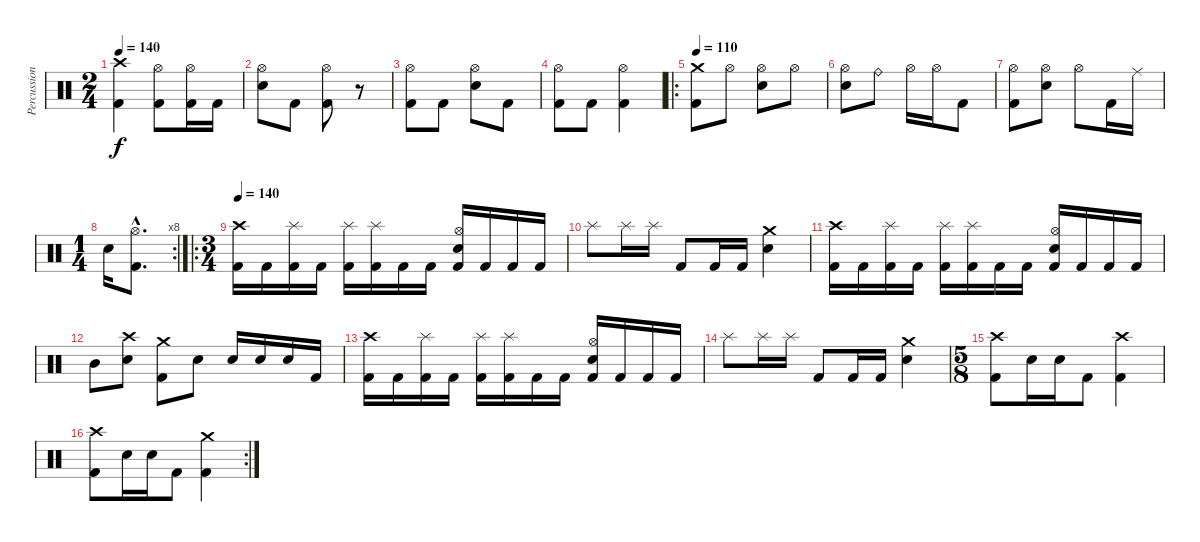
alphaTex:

\track ("Percussion" "Percussion") {instrument percussion}
\staff {score}
\articulation defaults
\ts (2 4)
\tempo 140
\clef neutral
\ks c
("Crash high (hit)" "Kick (hit) 2").4{dy f} ("Hi-Hat (open)" "Kick (hit) 2").8 ("Hi-Hat (open)" "Kick (hit) 2").16 "Kick (hit) 2".16 |
("Hi-Hat (open)" "Electric Snare (hit)").8 "Kick (hit) 2".8 ("Hi-Hat (open)" "Kick (hit) 2").8 r.8 |
("Hi-Hat (open)" "Kick (hit) 2").8 "Kick (hit) 2".8 ("Hi-Hat (open)" "Electric Snare (hit)").8 "Kick (hit) 2".8 |
("Hi-Hat (open)" "Kick (hit) 2").8 "Kick (hit) 2".8 ("Hi-Hat (open)" "Kick (hit) 2").4 |
\ro
\tempo 110
("Crash medium (hit)" "Kick (hit) 2").8 "Hi-Hat (open)".8 ("Hi-Hat (open)" "Electric Snare (hit)").8 "Hi-Hat (open)".8 |
("Hi-Hat (open)" "Electric Snare (hit)").8 "Ride (bell)".8 "Hi-Hat (open)".16 "Hi-Hat (open)".16 "Kick (hit) 2".8 |
("Hi-Hat (open)" "Kick (hit) 2").8 ("Hi-Hat (open)" "Electric Snare (hit)").8 "Hi-Hat (open)".8 "Kick (hit) 2".16 "Ride (middle)".16 |
\rc 8
\ts (1 4)
"Electric Snare (hit)".16 ("Hi-Hat (open)"{hac} "Kick (hit) 2"{hac}).8{d} |
\ro
\ts (3 4)
\tempo 140
("Crash high (hit)" "Kick (hit) 2").16 "Kick (hit) 2".16 ("Splash (hit)" "Kick (hit) 2").16 "Kick (hit) 2".16 ("Splash (hit)" "Kick (hit) 2").16 ("Splash (hit)" "Kick (hit) 2").16 "Kick (hit) 2".16 "Kick (hit) 2".16 ("Hi-Hat (open)" "Electric Snare (hit)" "Kick (hit) 2").16 "Kick (hit) 2".16 "Kick (hit) 2".16 "Kick (hit) 2".16 |
"Splash (hit)".8 "Splash (hit)".16 "Splash (hit)".16 "Kick (hit) 2".8 "Kick (hit) 2".16 "Kick (hit) 2".16 ("Crash medium (hit)" "Electric Snare (hit)").4 |
("Crash high (hit)" "Kick (hit) 2").16 "Kick (hit) 2".16 ("Splash (hit)" "Kick (hit) 2").16 "Kick (hit) 2".16 ("Splash (hit)" "Kick (hit) 2").16 ("Splash (hit)" "Kick (hit) 2").16 "Kick (hit) 2".16 "Kick (hit) 2".16 ("Hi-Hat (open)" "Electric Snare (hit)" "Kick (hit) 2").16 "Kick (hit) 2".16 "Kick (hit) 2".16 "Kick (hit) 2".16 |
"Mid Tom (hit)".8 ("Crash high (hit)" "Electric Snare (hit)").8 ("Crash medium (hit)" "Kick (hit) 2").8 "Electric Snare (hit)".8 "Electric Snare (hit)".16 "Electric Snare (hit)".16 "Electric Snare (hit)".16 "Kick (hit) 2".16 |
("Crash high (hit)" "Kick (hit) 2").16 "Kick (hit) 2".16 ("Splash (hit)" "Kick (hit) 2").16 "Kick (hit) 2".16 ("Splash (hit)" "Kick (hit) 2").16 ("Splash (hit)" "Kick (hit) 2").16 "Kick (hit) 2".16 "Kick (hit) 2".16 ("Hi-Hat (open)" "Electric Snare (hit)" "Kick (hit) 2").16 "Kick (hit) 2".16 "Kick (hit) 2".16 "Kick (hit) 2".16 |
"Splash (hit)".8 "Splash (hit)".16 "Splash (hit)".16 "Kick (hit) 2".8 "Kick (hit) 2".16 "Kick (hit) 2".16 ("Crash medium (hit)" "Electric Snare (hit)").4 |
\ts (5 8)
("Crash high (hit)" "Kick (hit) 2").8 "Electric Snare (hit)".16 "Electric Snare (hit)".16 "Kick (hit) 2".8 ("Crash high (hit)" "Kick (hit) 2").4 |
\rc 2
("Crash high (hit)" "Kick (hit) 2").8 "Electric Snare (hit)".16 "Electric Snare (hit)".16 "Kick (hit) 2".8 ("Crash medium (hit)" "Kick (hit) 2").4
